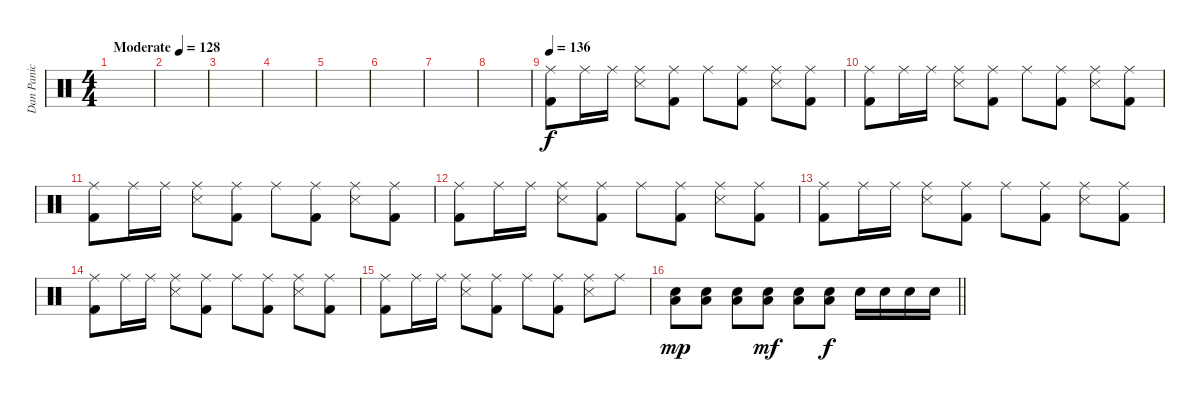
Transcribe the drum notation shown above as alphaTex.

\track ("Dan Panic" "Dan Panic") {instrument percussion}
\staff {score}
\articulation defaults
\ts (4 4)
\tempo (128 "Moderate")
\clef neutral
\ks c
|
|
|
|
|
|
|
|
\tempo 136
("Ride (middle)" "Kick (hit) 2").8 "Ride (middle)".16 "Ride (middle)".16 ("Ride (middle)" "Snare (side stick) 3").8 ("Ride (middle)" "Kick (hit) 2").8 "Ride (middle)".8 ("Ride (middle)" "Kick (hit) 2").8 ("Ride (middle)" "Snare (side stick) 3").8 ("Ride (middle)" "Kick (hit) 2").8 |
("Ride (middle)" "Kick (hit) 2").8 "Ride (middle)".16 "Ride (middle)".16 ("Ride (middle)" "Snare (side stick) 3").8 ("Ride (middle)" "Kick (hit) 2").8 "Ride (middle)".8 ("Ride (middle)" "Kick (hit) 2").8 ("Ride (middle)" "Snare (side stick) 3").8 ("Ride (middle)" "Kick (hit) 2").8 |
("Ride (middle)" "Kick (hit) 2").8 "Ride (middle)".16 "Ride (middle)".16 ("Ride (middle)" "Snare (side stick) 3").8 ("Ride (middle)" "Kick (hit) 2").8 "Ride (middle)".8 ("Ride (middle)" "Kick (hit) 2").8 ("Ride (middle)" "Snare (side stick) 3").8 ("Ride (middle)" "Kick (hit) 2").8 |
("Ride (middle)" "Kick (hit) 2").8 "Ride (middle)".16 "Ride (middle)".16 ("Ride (middle)" "Snare (side stick) 3").8 ("Ride (middle)" "Kick (hit) 2").8 "Ride (middle)".8 ("Ride (middle)" "Kick (hit) 2").8 ("Ride (middle)" "Snare (side stick) 3").8 ("Ride (middle)" "Kick (hit) 2").8 |
("Ride (middle)" "Kick (hit) 2").8 "Ride (middle)".16 "Ride (middle)".16 ("Ride (middle)" "Snare (side stick) 3").8 ("Ride (middle)" "Kick (hit) 2").8 "Ride (middle)".8 ("Ride (middle)" "Kick (hit) 2").8 ("Ride (middle)" "Snare (side stick) 3").8 ("Ride (middle)" "Kick (hit) 2").8 |
("Ride (middle)" "Kick (hit) 2").8 "Ride (middle)".16 "Ride (middle)".16 ("Ride (middle)" "Snare (side stick) 3").8 ("Ride (middle)" "Kick (hit) 2").8 "Ride (middle)".8 ("Ride (middle)" "Kick (hit) 2").8 ("Ride (middle)" "Snare (side stick) 3").8 ("Ride (middle)" "Kick (hit) 2").8 |
("Ride (middle)" "Kick (hit) 2").8 "Ride (middle)".16 "Ride (middle)".16 ("Ride (middle)" "Snare (side stick) 3").8 ("Ride (middle)" "Kick (hit) 2").8 "Ride (middle)".8 ("Ride (middle)" "Kick (hit) 2").8 ("Ride (middle)" "Snare (side stick) 3").8 "Ride (middle)".8 |
\barLineRight lightlight
("Electric Snare (hit)" "Low Floor Tom (hit)").8{dy mp} ("Electric Snare (hit)" "Low Floor Tom (hit)").8 ("Electric Snare (hit)" "Low Floor Tom (hit)").8 ("Electric Snare (hit)" "Low Floor Tom (hit)").8{dy mf} ("Electric Snare (hit)" "Low Floor Tom (hit)").8 ("Electric Snare (hit)" "Low Floor Tom (hit)").8{dy f} "Electric Snare (hit)".16 "Electric Snare (hit)".16 "Electric Snare (hit)".16 "Electric Snare (hit)".16
